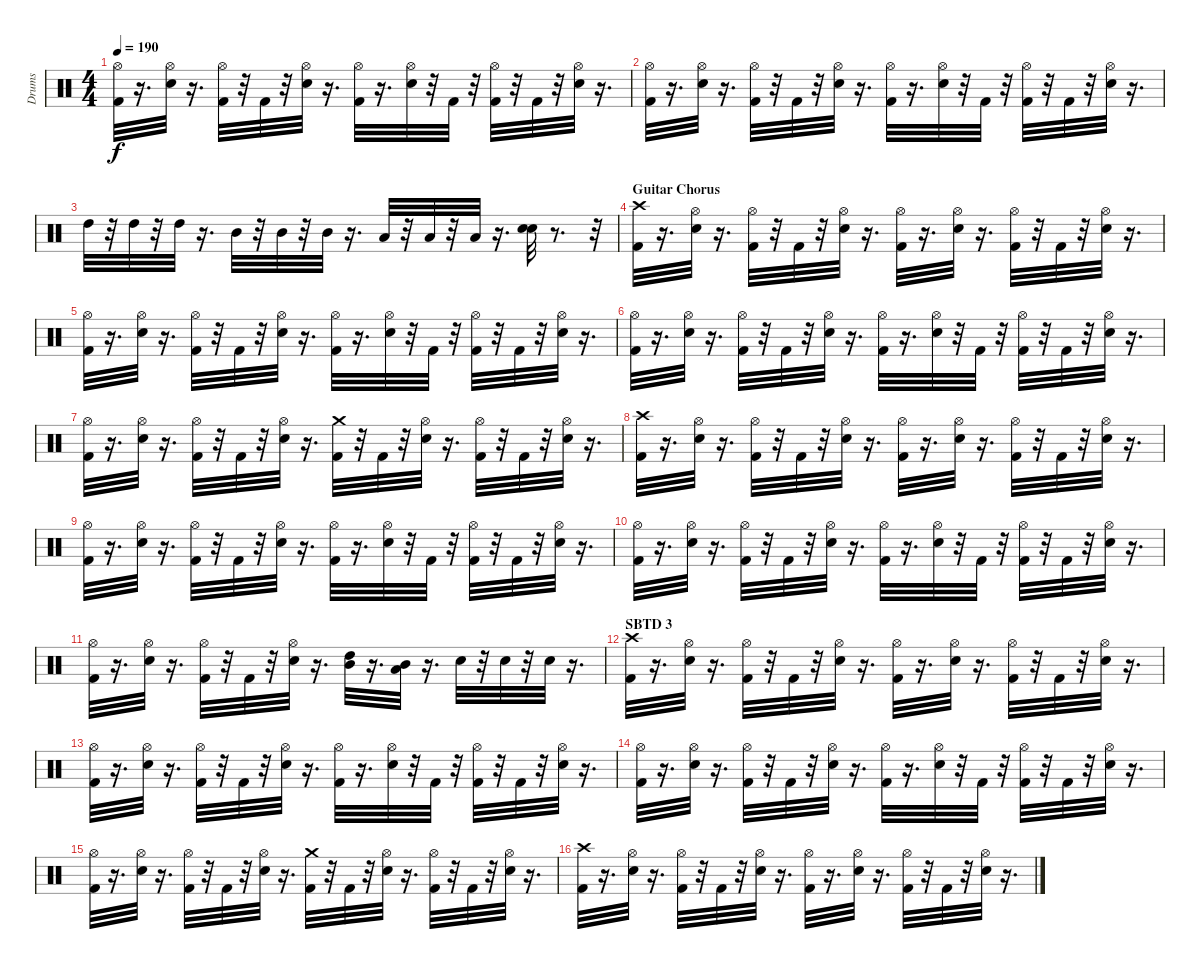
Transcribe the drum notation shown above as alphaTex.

\track ("Drums" "Drums") {instrument percussion}
\staff {score}
\articulation defaults
\ts (4 4)
\tempo 190
\clef neutral
\ks c
("Kick (hit) 2" "Hi-Hat (open)").32{dy f} r.16{d} ("Snare (hit) 2" "Hi-Hat (open)").32 r.16{d} ("Hi-Hat (open)" "Kick (hit) 2").32 r.32 "Kick (hit) 2".32 r.32 ("Snare (hit) 2" "Hi-Hat (open)").32 r.16{d} ("Hi-Hat (open)" "Kick (hit) 2").32 r.16{d} ("Hi-Hat (open)" "Snare (hit) 2").32 r.32 "Kick (hit) 2".32 r.32 ("Hi-Hat (open)" "Kick (hit) 2").32 r.32 "Kick (hit) 2".32 r.32 ("Hi-Hat (open)" "Snare (hit) 2").32 r.16{d} |
("Kick (hit) 2" "Hi-Hat (open)").32 r.16{d} ("Hi-Hat (open)" "Snare (hit) 2").32 r.16{d} ("Hi-Hat (open)" "Kick (hit) 2").32 r.32 "Kick (hit) 2".32 r.32 ("Snare (hit) 2" "Hi-Hat (open)").32 r.16{d} ("Kick (hit) 2" "Hi-Hat (open)").32 r.16{d} ("Snare (hit) 2" "Hi-Hat (open)").32 r.32 "Kick (hit) 2".32 r.32 ("Hi-Hat (open)" "Kick (hit) 2").32 r.32 "Kick (hit) 2".32 r.32 ("Hi-Hat (open)" "Snare (hit) 2").32 r.16{d} |
"High Tom (hit)".32 r.32 "High Tom (hit)".32 r.32 "High Tom (hit)".32 r.16{d} "Mid Tom (hit)".32 r.32 "Mid Tom (hit)".32 r.32 "Mid Tom (hit)".32 r.16{d} "Low Tom (hit)".32 r.32 "Low Tom (hit)".32 r.32 "Low Tom (hit)".32 r.16{d} ("Electric Snare (hit)" "Snare (hit) 2").32 r.8{d} r.32 |
\section ("" "Guitar Chorus")
("Kick (hit) 2" "Crash high (hit)").32 r.16{d} ("Hi-Hat (open)" "Snare (hit) 2").32 r.16{d} ("Hi-Hat (open)" "Kick (hit) 2").32 r.32 "Kick (hit) 2".32 r.32 ("Snare (hit) 2" "Hi-Hat (open)").32 r.16{d} ("Kick (hit) 2" "Hi-Hat (open)").32 r.16{d} ("Hi-Hat (open)" "Snare (hit) 2").32 r.16{d} ("Kick (hit) 2" "Hi-Hat (open)").32 r.32 "Kick (hit) 2".32 r.32 ("Snare (hit) 2" "Hi-Hat (open)").32 r.16{d} |
("Kick (hit) 2" "Hi-Hat (open)").32 r.16{d} ("Snare (hit) 2" "Hi-Hat (open)").32 r.16{d} ("Kick (hit) 2" "Hi-Hat (open)").32 r.32 "Kick (hit) 2".32 r.32 ("Hi-Hat (open)" "Snare (hit) 2").32 r.16{d} ("Kick (hit) 2" "Hi-Hat (open)").32 r.16{d} ("Snare (hit) 2" "Hi-Hat (open)").32 r.32 "Kick (hit) 2".32 r.32 ("Kick (hit) 2" "Hi-Hat (open)").32 r.32 "Kick (hit) 2".32 r.32 ("Hi-Hat (open)" "Snare (hit) 2").32 r.16{d} |
("Hi-Hat (open)" "Kick (hit) 2").32 r.16{d} ("Snare (hit) 2" "Hi-Hat (open)").32 r.16{d} ("Kick (hit) 2" "Hi-Hat (open)").32 r.32 "Kick (hit) 2".32 r.32 ("Snare (hit) 2" "Hi-Hat (open)").32 r.16{d} ("Kick (hit) 2" "Hi-Hat (open)").32 r.16{d} ("Hi-Hat (open)" "Snare (hit) 2").32 r.32 "Kick (hit) 2".32 r.32 ("Kick (hit) 2" "Hi-Hat (open)").32 r.32 "Kick (hit) 2".32 r.32 ("Snare (hit) 2" "Hi-Hat (open)").32 r.16{d} |
("Kick (hit) 2" "Hi-Hat (open)").32 r.16{d} ("Snare (hit) 2" "Hi-Hat (open)").32 r.16{d} ("Kick (hit) 2" "Hi-Hat (open)").32 r.32 "Kick (hit) 2".32 r.32 ("Hi-Hat (open)" "Snare (hit) 2").32 r.16{d} ("Crash medium (hit)" "Kick (hit) 2").32 r.32 "Kick (hit) 2".32 r.32 ("Hi-Hat (open)" "Snare (hit) 2").32 r.16{d} ("Kick (hit) 2" "Hi-Hat (open)").32 r.32 "Kick (hit) 2".32 r.32 ("Hi-Hat (open)" "Snare (hit) 2").32 r.16{d} |
("Kick (hit) 2" "Crash high (hit)").32 r.16{d} ("Snare (hit) 2" "Hi-Hat (open)").32 r.16{d} ("Kick (hit) 2" "Hi-Hat (open)").32 r.32 "Kick (hit) 2".32 r.32 ("Snare (hit) 2" "Hi-Hat (open)").32 r.16{d} ("Hi-Hat (open)" "Kick (hit) 2").32 r.16{d} ("Snare (hit) 2" "Hi-Hat (open)").32 r.16{d} ("Kick (hit) 2" "Hi-Hat (open)").32 r.32 "Kick (hit) 2".32 r.32 ("Hi-Hat (open)" "Snare (hit) 2").32 r.16{d} |
("Hi-Hat (open)" "Kick (hit) 2").32 r.16{d} ("Hi-Hat (open)" "Snare (hit) 2").32 r.16{d} ("Kick (hit) 2" "Hi-Hat (open)").32 r.32 "Kick (hit) 2".32 r.32 ("Hi-Hat (open)" "Snare (hit) 2").32 r.16{d} ("Kick (hit) 2" "Hi-Hat (open)").32 r.16{d} ("Hi-Hat (open)" "Snare (hit) 2").32 r.32 "Kick (hit) 2".32 r.32 ("Kick (hit) 2" "Hi-Hat (open)").32 r.32 "Kick (hit) 2".32 r.32 ("Snare (hit) 2" "Hi-Hat (open)").32 r.16{d} |
("Hi-Hat (open)" "Kick (hit) 2").32 r.16{d} ("Snare (hit) 2" "Hi-Hat (open)").32 r.16{d} ("Hi-Hat (open)" "Kick (hit) 2").32 r.32 "Kick (hit) 2".32 r.32 ("Hi-Hat (open)" "Snare (hit) 2").32 r.16{d} ("Kick (hit) 2" "Hi-Hat (open)").32 r.16{d} ("Hi-Hat (open)" "Snare (hit) 2").32 r.32 "Kick (hit) 2".32 r.32 ("Hi-Hat (open)" "Kick (hit) 2").32 r.32 "Kick (hit) 2".32 r.32 ("Hi-Hat (open)" "Snare (hit) 2").32 r.16{d} |
("Kick (hit) 2" "Hi-Hat (open)").32 r.16{d} ("Snare (hit) 2" "Hi-Hat (open)").32 r.16{d} ("Kick (hit) 2" "Hi-Hat (open)").32 r.32 "Kick (hit) 2".32 r.32 ("Snare (hit) 2" "Hi-Hat (open)").32 r.16{d} ("Mid Tom (hit)" "High Tom (hit)").32 r.16{d} ("Mid Tom (hit)" "Low Tom (hit)").32 r.16{d} "Snare (hit) 2".32 r.32 "Snare (hit) 2".32 r.32 "Snare (hit) 2".32 r.16{d} |
\section ("" "SBTD 3")
("Kick (hit) 2" "Crash high (hit)").32 r.16{d} ("Hi-Hat (open)" "Snare (hit) 2").32 r.16{d} ("Kick (hit) 2" "Hi-Hat (open)").32 r.32 "Kick (hit) 2".32 r.32 ("Snare (hit) 2" "Hi-Hat (open)").32 r.16{d} ("Hi-Hat (open)" "Kick (hit) 2").32 r.16{d} ("Hi-Hat (open)" "Snare (hit) 2").32 r.16{d} ("Kick (hit) 2" "Hi-Hat (open)").32 r.32 "Kick (hit) 2".32 r.32 ("Hi-Hat (open)" "Snare (hit) 2").32 r.16{d} |
("Kick (hit) 2" "Hi-Hat (open)").32 r.16{d} ("Hi-Hat (open)" "Snare (hit) 2").32 r.16{d} ("Kick (hit) 2" "Hi-Hat (open)").32 r.32 "Kick (hit) 2".32 r.32 ("Snare (hit) 2" "Hi-Hat (open)").32 r.16{d} ("Kick (hit) 2" "Hi-Hat (open)").32 r.16{d} ("Snare (hit) 2" "Hi-Hat (open)").32 r.32 "Kick (hit) 2".32 r.32 ("Kick (hit) 2" "Hi-Hat (open)").32 r.32 "Kick (hit) 2".32 r.32 ("Hi-Hat (open)" "Snare (hit) 2").32 r.16{d} |
("Hi-Hat (open)" "Kick (hit) 2").32 r.16{d} ("Hi-Hat (open)" "Snare (hit) 2").32 r.16{d} ("Kick (hit) 2" "Hi-Hat (open)").32 r.32 "Kick (hit) 2".32 r.32 ("Hi-Hat (open)" "Snare (hit) 2").32 r.16{d} ("Hi-Hat (open)" "Kick (hit) 2").32 r.16{d} ("Hi-Hat (open)" "Snare (hit) 2").32 r.32 "Kick (hit) 2".32 r.32 ("Kick (hit) 2" "Hi-Hat (open)").32 r.32 "Kick (hit) 2".32 r.32 ("Hi-Hat (open)" "Snare (hit) 2").32 r.16{d} |
("Kick (hit) 2" "Hi-Hat (open)").32 r.16{d} ("Snare (hit) 2" "Hi-Hat (open)").32 r.16{d} ("Hi-Hat (open)" "Kick (hit) 2").32 r.32 "Kick (hit) 2".32 r.32 ("Hi-Hat (open)" "Snare (hit) 2").32 r.16{d} ("Kick (hit) 2" "Crash medium (hit)").32 r.32 "Kick (hit) 2".32 r.32 ("Hi-Hat (open)" "Snare (hit) 2").32 r.16{d} ("Hi-Hat (open)" "Kick (hit) 2").32 r.32 "Kick (hit) 2".32 r.32 ("Hi-Hat (open)" "Snare (hit) 2").32 r.16{d} |
("Crash high (hit)" "Kick (hit) 2").32 r.16{d} ("Hi-Hat (open)" "Snare (hit) 2").32 r.16{d} ("Hi-Hat (open)" "Kick (hit) 2").32 r.32 "Kick (hit) 2".32 r.32 ("Snare (hit) 2" "Hi-Hat (open)").32 r.16{d} ("Hi-Hat (open)" "Kick (hit) 2").32 r.16{d} ("Hi-Hat (open)" "Snare (hit) 2").32 r.16{d} ("Hi-Hat (open)" "Kick (hit) 2").32 r.32 "Kick (hit) 2".32 r.32 ("Hi-Hat (open)" "Snare (hit) 2").32 r.16{d}
